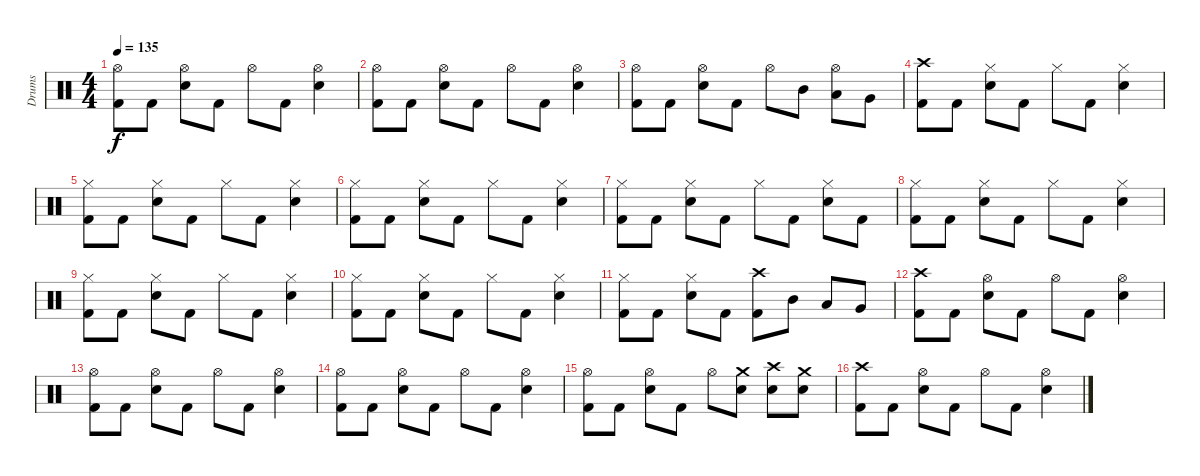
\track ("Drums" "Drums") {instrument percussion}
\staff {score}
\articulation defaults
\ts (4 4)
\tempo 135
\clef neutral
\ks c
("Hi-Hat (open)" "Kick (hit) 2").8{dy f} "Kick (hit) 2".8 ("Hi-Hat (open)" "Electric Snare (hit)").8 "Kick (hit) 2".8 "Hi-Hat (open)".8 "Kick (hit) 2".8 ("Hi-Hat (open)" "Electric Snare (hit)").4 |
("Hi-Hat (open)" "Kick (hit) 2").8 "Kick (hit) 2".8 ("Hi-Hat (open)" "Electric Snare (hit)").8 "Kick (hit) 2".8 "Hi-Hat (open)".8 "Kick (hit) 2".8 ("Hi-Hat (open)" "Electric Snare (hit)").4 |
("Hi-Hat (open)" "Kick (hit) 2").8 "Kick (hit) 2".8 ("Hi-Hat (open)" "Electric Snare (hit)").8 "Kick (hit) 2".8 "Hi-Hat (open)".8 "Mid Tom (hit)".8 ("Hi-Hat (open)" "Low Tom (hit)").8 "Very Low Tom (hit)".8 |
("Crash high (hit)" "Kick (hit) 2").8 "Kick (hit) 2".8 ("Hi-Hat (closed)" "Electric Snare (hit)").8 "Kick (hit) 2".8 "Hi-Hat (closed)".8 "Kick (hit) 2".8 ("Hi-Hat (closed)" "Electric Snare (hit)").4 |
("Hi-Hat (closed)" "Kick (hit) 2").8 "Kick (hit) 2".8 ("Hi-Hat (closed)" "Electric Snare (hit)").8 "Kick (hit) 2".8 "Hi-Hat (closed)".8 "Kick (hit) 2".8 ("Hi-Hat (closed)" "Electric Snare (hit)").4 |
("Hi-Hat (closed)" "Kick (hit) 2").8 "Kick (hit) 2".8 ("Hi-Hat (closed)" "Electric Snare (hit)").8 "Kick (hit) 2".8 "Hi-Hat (closed)".8 "Kick (hit) 2".8 ("Hi-Hat (closed)" "Electric Snare (hit)").4 |
("Hi-Hat (closed)" "Kick (hit) 2").8 "Kick (hit) 2".8 ("Hi-Hat (closed)" "Electric Snare (hit)").8 "Kick (hit) 2".8 "Hi-Hat (closed)".8 "Kick (hit) 2".8 ("Hi-Hat (closed)" "Electric Snare (hit)").8 "Kick (hit) 2".8 |
("Hi-Hat (closed)" "Kick (hit) 2").8 "Kick (hit) 2".8 ("Hi-Hat (closed)" "Electric Snare (hit)").8 "Kick (hit) 2".8 "Hi-Hat (closed)".8 "Kick (hit) 2".8 ("Hi-Hat (closed)" "Electric Snare (hit)").4 |
("Hi-Hat (closed)" "Kick (hit) 2").8 "Kick (hit) 2".8 ("Hi-Hat (closed)" "Electric Snare (hit)").8 "Kick (hit) 2".8 "Hi-Hat (closed)".8 "Kick (hit) 2".8 ("Hi-Hat (closed)" "Electric Snare (hit)").4 |
("Hi-Hat (closed)" "Kick (hit) 2").8 "Kick (hit) 2".8 ("Hi-Hat (closed)" "Electric Snare (hit)").8 "Kick (hit) 2".8 "Hi-Hat (closed)".8 "Kick (hit) 2".8 ("Hi-Hat (closed)" "Electric Snare (hit)").4 |
("Hi-Hat (closed)" "Kick (hit) 2").8 "Kick (hit) 2".8 ("Hi-Hat (closed)" "Electric Snare (hit)").8 "Kick (hit) 2".8 ("Crash high (hit)" "Kick (hit) 2").8 "Mid Tom (hit)".8 "Low Tom (hit)".8 "Very Low Tom (hit)".8 |
("Crash high (hit)" "Kick (hit) 2").8 "Kick (hit) 2".8 ("Hi-Hat (open)" "Electric Snare (hit)").8 "Kick (hit) 2".8 "Hi-Hat (open)".8 "Kick (hit) 2".8 ("Hi-Hat (open)" "Electric Snare (hit)").4 |
("Hi-Hat (open)" "Kick (hit) 2").8 "Kick (hit) 2".8 ("Hi-Hat (open)" "Electric Snare (hit)").8 "Kick (hit) 2".8 "Hi-Hat (open)".8 "Kick (hit) 2".8 ("Hi-Hat (open)" "Electric Snare (hit)").4 |
("Hi-Hat (open)" "Kick (hit) 2").8 "Kick (hit) 2".8 ("Hi-Hat (open)" "Electric Snare (hit)").8 "Kick (hit) 2".8 "Hi-Hat (open)".8 "Kick (hit) 2".8 ("Hi-Hat (open)" "Electric Snare (hit)").4 |
("Hi-Hat (open)" "Kick (hit) 2").8 "Kick (hit) 2".8 ("Hi-Hat (open)" "Electric Snare (hit)").8 "Kick (hit) 2".8 "Hi-Hat (open)".8 ("Electric Snare (hit)" "Crash medium (hit)").8 ("Crash high (hit)" "Electric Snare (hit)").8 ("Electric Snare (hit)" "Crash medium (hit)").8 |
("Crash high (hit)" "Kick (hit) 2").8 "Kick (hit) 2".8 ("Hi-Hat (open)" "Electric Snare (hit)").8 "Kick (hit) 2".8 "Hi-Hat (open)".8 "Kick (hit) 2".8 ("Hi-Hat (open)" "Electric Snare (hit)").4
